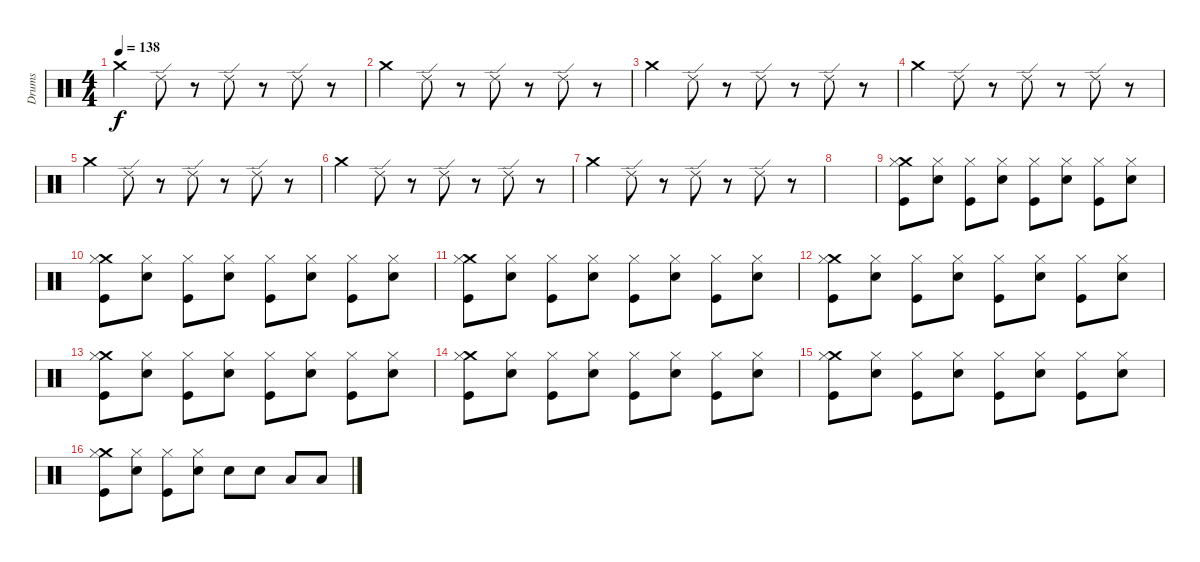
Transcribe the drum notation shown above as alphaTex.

\track ("Drums" "Drums") {instrument percussion}
\staff {score}
\articulation defaults
\ts (4 4)
\tempo 138
\clef neutral
\ks c "Crash medium (hit)".4{dy f} "Ride (edge) 2".8
r.8 "Ride (edge) 2".8 r.8 "Ride (edge) 2".8 r.8 |
"Crash medium (hit)".4 "Ride (edge) 2".8 r.8 "Ride (edge) 2".8 r.8 "Ride (edge) 2".8 r.8 |
"Crash medium (hit)".4 "Ride (edge) 2".8 r.8 "Ride (edge) 2".8 r.8 "Ride (edge) 2".8 r.8 |
"Crash medium (hit)".4 "Ride (edge) 2".8 r.8 "Ride (edge) 2".8 r.8 "Ride (edge) 2".8 r.8 |
"Crash medium (hit)".4 "Ride (edge) 2".8 r.8 "Ride (edge) 2".8 r.8 "Ride (edge) 2".8 r.8 |
"Crash medium (hit)".4 "Ride (edge) 2".8 r.8 "Ride (edge) 2".8 r.8 "Ride (edge) 2".8 r.8 |
"Crash medium (hit)".4 "Ride (edge) 2".8 r.8 "Ride (edge) 2".8 r.8 "Ride (edge) 2".8 r.8 |
|
("Crash medium (hit)" "Hi-Hat (closed)" "Kick (hit)").8 ("Hi-Hat (closed)" "Electric Snare (hit)").8 ("Hi-Hat (closed)" "Kick (hit)").8 ("Hi-Hat (closed)" "Electric Snare (hit)").8 ("Hi-Hat (closed)" "Kick (hit)").8 ("Hi-Hat (closed)" "Electric Snare (hit)").8 ("Hi-Hat (closed)" "Kick (hit)").8 ("Hi-Hat (closed)" "Electric Snare (hit)").8 |
("Crash medium (hit)" "Hi-Hat (closed)" "Kick (hit)").8 ("Hi-Hat (closed)" "Electric Snare (hit)").8 ("Hi-Hat (closed)" "Kick (hit)").8 ("Hi-Hat (closed)" "Electric Snare (hit)").8 ("Hi-Hat (closed)" "Kick (hit)").8 ("Hi-Hat (closed)" "Electric Snare (hit)").8 ("Hi-Hat (closed)" "Kick (hit)").8 ("Hi-Hat (closed)" "Electric Snare (hit)").8 |
("Crash medium (hit)" "Hi-Hat (closed)" "Kick (hit)").8 ("Hi-Hat (closed)" "Electric Snare (hit)").8 ("Hi-Hat (closed)" "Kick (hit)").8 ("Hi-Hat (closed)" "Electric Snare (hit)").8 ("Hi-Hat (closed)" "Kick (hit)").8 ("Hi-Hat (closed)" "Electric Snare (hit)").8 ("Hi-Hat (closed)" "Kick (hit)").8 ("Hi-Hat (closed)" "Electric Snare (hit)").8 |
("Crash medium (hit)" "Hi-Hat (closed)" "Kick (hit)").8 ("Hi-Hat (closed)" "Electric Snare (hit)").8 ("Hi-Hat (closed)" "Kick (hit)").8 ("Hi-Hat (closed)" "Electric Snare (hit)").8 ("Hi-Hat (closed)" "Kick (hit)").8 ("Hi-Hat (closed)" "Electric Snare (hit)").8 ("Hi-Hat (closed)" "Kick (hit)").8 ("Hi-Hat (closed)" "Electric Snare (hit)").8 |
("Crash medium (hit)" "Hi-Hat (closed)" "Kick (hit)").8 ("Hi-Hat (closed)" "Electric Snare (hit)").8 ("Hi-Hat (closed)" "Kick (hit)").8 ("Hi-Hat (closed)" "Electric Snare (hit)").8 ("Hi-Hat (closed)" "Kick (hit)").8 ("Hi-Hat (closed)" "Electric Snare (hit)").8 ("Hi-Hat (closed)" "Kick (hit)").8 ("Hi-Hat (closed)" "Electric Snare (hit)").8 |
("Crash medium (hit)" "Hi-Hat (closed)" "Kick (hit)").8 ("Hi-Hat (closed)" "Electric Snare (hit)").8 ("Hi-Hat (closed)" "Kick (hit)").8 ("Hi-Hat (closed)" "Electric Snare (hit)").8 ("Hi-Hat (closed)" "Kick (hit)").8 ("Hi-Hat (closed)" "Electric Snare (hit)").8 ("Hi-Hat (closed)" "Kick (hit)").8 ("Hi-Hat (closed)" "Electric Snare (hit)").8 |
("Crash medium (hit)" "Hi-Hat (closed)" "Kick (hit)").8 ("Hi-Hat (closed)" "Electric Snare (hit)").8 ("Hi-Hat (closed)" "Kick (hit)").8 ("Hi-Hat (closed)" "Electric Snare (hit)").8 ("Hi-Hat (closed)" "Kick (hit)").8 ("Hi-Hat (closed)" "Electric Snare (hit)").8 ("Hi-Hat (closed)" "Kick (hit)").8 ("Hi-Hat (closed)" "Electric Snare (hit)").8 |
("Crash medium (hit)" "Hi-Hat (closed)" "Kick (hit)").8 ("Hi-Hat (closed)" "Electric Snare (hit)").8 ("Hi-Hat (closed)" "Kick (hit)").8 ("Hi-Hat (closed)" "Electric Snare (hit)").8 "Electric Snare (hit)".8 "Electric Snare (hit)".8 "Low Tom (hit)".8 "Low Tom (hit)".8
